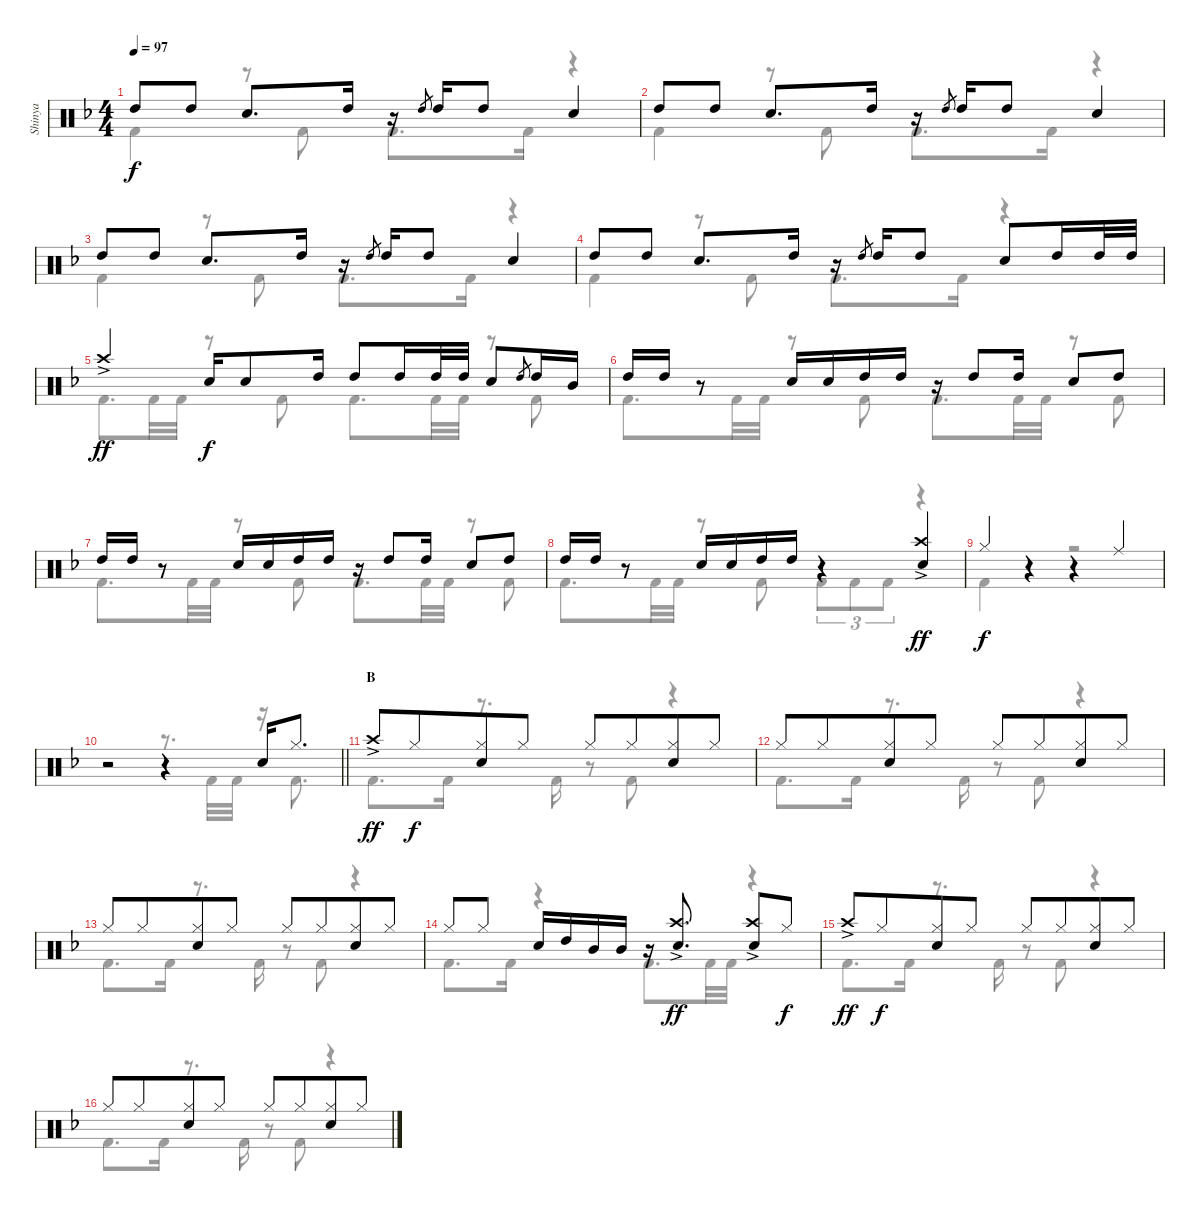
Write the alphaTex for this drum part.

\track ("Shinya" "Shinya") {mute instrument percussion}
\staff {score}
\articulation defaults
\voice
\ts (4 4)
\tempo 97
\clef neutral
\ks dminor "High Tom (hit)".8{dy f} "High Tom (hit)".8 "Snare (hit) 2".8{d} "High Tom (hit)".16
r.16 "High Tom (hit)".8{gr} "High Tom (hit)".16 "High Tom (hit)".8 "Snare (hit) 2".4 |
"High Tom (hit)".8 "High Tom (hit)".8 "Snare (hit) 2".8{d} "High Tom (hit)".16 r.16 "High Tom (hit)".8{gr} "High Tom (hit)".16 "High Tom (hit)".8 "Snare (hit) 2".4 |
"High Tom (hit)".8 "High Tom (hit)".8 "Snare (hit) 2".8{d} "High Tom (hit)".16 r.16 "High Tom (hit)".8{gr} "High Tom (hit)".16 "High Tom (hit)".8 "Snare (hit) 2".4 |
"High Tom (hit)".8 "High Tom (hit)".8 "Snare (hit) 2".8{d} "High Tom (hit)".16 r.16 "High Tom (hit)".8{gr} "High Tom (hit)".16 "High Tom (hit)".8 "Snare (hit) 2".8 "High Tom (hit)".16 "High Tom (hit)".32 "High Tom (hit)".32 |
"Crash high (hit)"{ac}.4{dy ff} "Snare (hit) 2".16{dy f} "Snare (hit) 2".8 "High Tom (hit)".16 "High Tom (hit)".8 "High Tom (hit)".16 "High Tom (hit)".32 "High Tom (hit)".32 "Snare (hit) 2".8 "High Tom (hit)".8{gr} "High Tom (hit)".16 "Mid Tom (hit)".16 |
"High Tom (hit)".16 "High Tom (hit)".16 r.8 "Snare (hit) 2".16 "Snare (hit) 2".16 "High Tom (hit)".16 "High Tom (hit)".16 r.16 "High Tom (hit)".8 "High Tom (hit)".16 "Snare (hit) 2".8 "High Tom (hit)".8 |
"High Tom (hit)".16 "High Tom (hit)".16 r.8 "Snare (hit) 2".16 "Snare (hit) 2".16 "High Tom (hit)".16 "High Tom (hit)".16 r.16 "High Tom (hit)".8 "High Tom (hit)".16 "Snare (hit) 2".8 "High Tom (hit)".8 |
"High Tom (hit)".16 "High Tom (hit)".16 r.8 "Snare (hit) 2".16 "Snare (hit) 2".16 "High Tom (hit)".16 "High Tom (hit)".16 r.4 ("Crash high (hit)"{ac} "Snare (hit) 2").4{dy ff} |
"Hi-Hat (closed)".4{dy f} r.4 r.4 "Ride (middle)".4 |
\barLineRight lightlight
r.2 r.4 "Snare (hit) 2".16 "Hi-Hat (closed)".8{d} |
\section ("" "B")
"Crash high (hit)"{ac}.8{dy ff} "Hi-Hat (closed)".8{dy f beam merge} ("Hi-Hat (closed)" "Snare (hit) 2").8 "Hi-Hat (closed)".8 "Hi-Hat (closed)".8 "Hi-Hat (closed)".8{beam merge} ("Hi-Hat (closed)" "Snare (hit) 2").8 "Hi-Hat (closed)".8 |
"Hi-Hat (closed)".8 "Hi-Hat (closed)".8{beam merge} ("Hi-Hat (closed)" "Snare (hit) 2").8 "Hi-Hat (closed)".8 "Hi-Hat (closed)".8 "Hi-Hat (closed)".8{beam merge} ("Hi-Hat (closed)" "Snare (hit) 2").8 "Hi-Hat (closed)".8 |
"Hi-Hat (closed)".8 "Hi-Hat (closed)".8{beam merge} ("Hi-Hat (closed)" "Snare (hit) 2").8 "Hi-Hat (closed)".8 "Hi-Hat (closed)".8 "Hi-Hat (closed)".8{beam merge} ("Hi-Hat (closed)" "Snare (hit) 2").8 "Hi-Hat (closed)".8 |
"Hi-Hat (closed)".8 "Hi-Hat (closed)".8 "Snare (hit) 2".16 "High Tom (hit)".16 "Mid Tom (hit)".16 "Mid Tom (hit)".16 r.16 ("Crash high (hit)"{ac} "Snare (hit) 2").8{d dy ff} ("Crash high (hit)"{ac} "Snare (hit) 2").8 "Hi-Hat (closed)".8{dy f} |
"Crash high (hit)"{ac}.8{dy ff} "Hi-Hat (closed)".8{dy f beam merge} ("Hi-Hat (closed)" "Snare (hit) 2").8 "Hi-Hat (closed)".8 "Hi-Hat (closed)".8 "Hi-Hat (closed)".8{beam merge} ("Hi-Hat (closed)" "Snare (hit) 2").8 "Hi-Hat (closed)".8 |
"Hi-Hat (closed)".8 "Hi-Hat (closed)".8{beam merge} ("Hi-Hat (closed)" "Snare (hit) 2").8 "Hi-Hat (closed)".8 "Hi-Hat (closed)".8 "Hi-Hat (closed)".8{beam merge} ("Hi-Hat (closed)" "Snare (hit) 2").8 "Hi-Hat (closed)".8
\voice
\clef neutral
\ottava regular
\simile none
\ks dminor "Kick (hit) 2".4{dy f}
r.8 "Kick (hit) 2".8 "Kick (hit) 2".8{d} "Kick (hit) 2".16 r.4 |
"Kick (hit) 2".4 r.8 "Kick (hit) 2".8 "Kick (hit) 2".8{d} "Kick (hit) 2".16 r.4 |
"Kick (hit) 2".4 r.8 "Kick (hit) 2".8 "Kick (hit) 2".8{d} "Kick (hit) 2".16 r.4 |
"Kick (hit) 2".4 r.8 "Kick (hit) 2".8 "Kick (hit) 2".8{d} "Kick (hit) 2".16 r.4 |
"Kick (hit) 2".8{d} "Kick (hit) 2".32 "Kick (hit) 2".32 r.8 "Kick (hit) 2".8 "Kick (hit) 2".8{d} "Kick (hit) 2".32 "Kick (hit) 2".32 r.8 "Kick (hit) 2".8 |
"Kick (hit) 2".8{d} "Kick (hit) 2".32 "Kick (hit) 2".32 r.8 "Kick (hit) 2".8 "Kick (hit) 2".8{d} "Kick (hit) 2".32 "Kick (hit) 2".32 r.8 "Kick (hit) 2".8 |
"Kick (hit) 2".8{d} "Kick (hit) 2".32 "Kick (hit) 2".32 r.8 "Kick (hit) 2".8 "Kick (hit) 2".8{d} "Kick (hit) 2".32 "Kick (hit) 2".32 r.8 "Kick (hit) 2".8 |
"Kick (hit) 2".8{d} "Kick (hit) 2".32 "Kick (hit) 2".32 r.8 "Kick (hit) 2".8{beam split} "Kick (hit) 2".8{tu (3 2) beam merge} "Kick (hit) 2".8{tu (3 2)} "Kick (hit) 2".8{tu (3 2)} r.4 |
"Kick (hit) 2".4 r.4 r.2 |
\barLineRight lightlight
r.2 r.8{d} "Kick (hit) 2".32 "Kick (hit) 2".32 r.16 "Kick (hit) 2".8{d} |
"Kick (hit) 2".8{d} "Kick (hit) 2".16 r.8{d} "Kick (hit) 2".16 r.8 "Kick (hit) 2".8 r.4 |
"Kick (hit) 2".8{d} "Kick (hit) 2".16 r.8{d} "Kick (hit) 2".16 r.8 "Kick (hit) 2".8 r.4 |
"Kick (hit) 2".8{d} "Kick (hit) 2".16 r.8{d} "Kick (hit) 2".16 r.8 "Kick (hit) 2".8 r.4 |
"Kick (hit) 2".8{d} "Kick (hit) 2".16 r.4 "Kick (hit) 2".8{d} "Kick (hit) 2".32 "Kick (hit) 2".32 r.4 |
"Kick (hit) 2".8{d} "Kick (hit) 2".16 r.8{d} "Kick (hit) 2".16 r.8 "Kick (hit) 2".8 r.4 |
"Kick (hit) 2".8{d} "Kick (hit) 2".16 r.8{d} "Kick (hit) 2".16 r.8 "Kick (hit) 2".8 r.4
